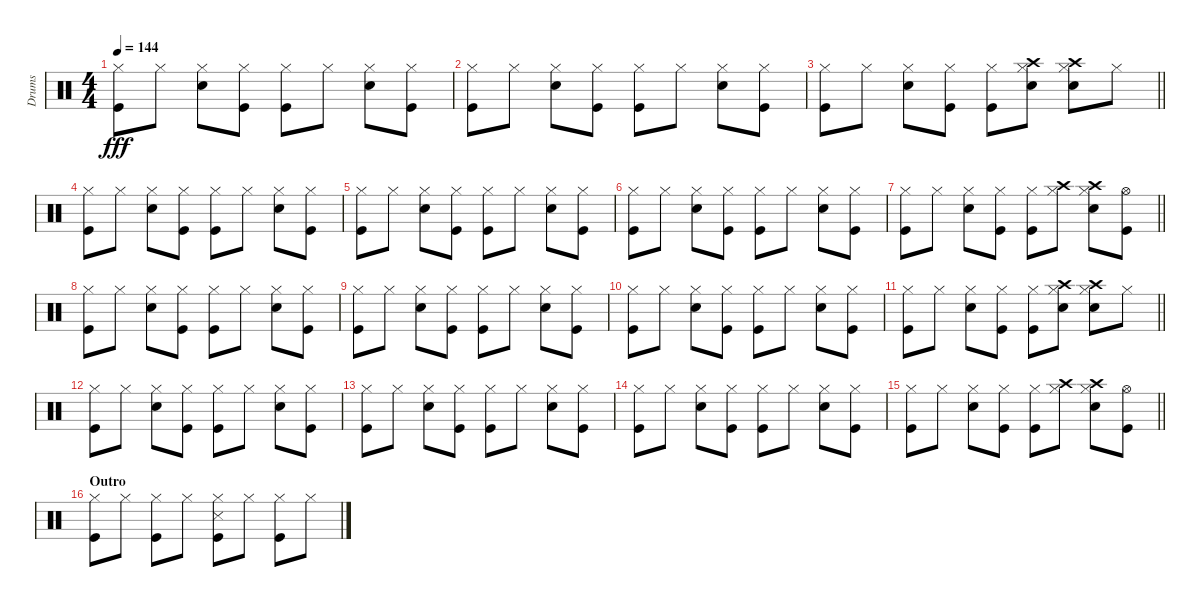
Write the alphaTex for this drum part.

\track ("Drums" "Drums") {instrument percussion}
\staff {score}
\articulation defaults
\ts (4 4)
\tempo 144
\clef neutral
\ks c
("Hi-Hat (closed)" "Kick (hit)").8{dy fff} "Hi-Hat (closed)".8 ("Snare (hit) 2" "Hi-Hat (closed)").8 ("Kick (hit)" "Hi-Hat (closed)").8 ("Kick (hit)" "Hi-Hat (closed)").8 "Hi-Hat (closed)".8 ("Snare (hit) 2" "Hi-Hat (closed)").8 ("Hi-Hat (closed)" "Kick (hit)").8 |
("Hi-Hat (closed)" "Kick (hit)").8 "Hi-Hat (closed)".8 ("Snare (hit) 2" "Hi-Hat (closed)").8 ("Kick (hit)" "Hi-Hat (closed)").8 ("Hi-Hat (closed)" "Kick (hit)").8 "Hi-Hat (closed)".8 ("Snare (hit) 2" "Hi-Hat (closed)").8 ("Hi-Hat (closed)" "Kick (hit)").8 |
\barLineRight lightlight
("Hi-Hat (closed)" "Kick (hit)").8 "Hi-Hat (closed)".8 ("Snare (hit) 2" "Hi-Hat (closed)").8 ("Kick (hit)" "Hi-Hat (closed)").8 ("Kick (hit)" "Hi-Hat (closed)").8 ("Hi-Hat (closed)" "Crash high (hit)" "Snare (hit) 2").8 ("Hi-Hat (closed)" "Crash high (hit)" "Snare (hit) 2").8 "Hi-Hat (closed)".8 |
("Hi-Hat (closed)" "Kick (hit)").8 "Hi-Hat (closed)".8 ("Snare (hit) 2" "Hi-Hat (closed)").8 ("Kick (hit)" "Hi-Hat (closed)").8 ("Kick (hit)" "Hi-Hat (closed)").8 "Hi-Hat (closed)".8 ("Snare (hit) 2" "Hi-Hat (closed)").8 ("Hi-Hat (closed)" "Kick (hit)").8 |
("Hi-Hat (closed)" "Kick (hit)").8 "Hi-Hat (closed)".8 ("Snare (hit) 2" "Hi-Hat (closed)").8 ("Kick (hit)" "Hi-Hat (closed)").8 ("Kick (hit)" "Hi-Hat (closed)").8 "Hi-Hat (closed)".8 ("Snare (hit) 2" "Hi-Hat (closed)").8 ("Hi-Hat (closed)" "Kick (hit)").8 |
("Hi-Hat (closed)" "Kick (hit)").8 "Hi-Hat (closed)".8 ("Snare (hit) 2" "Hi-Hat (closed)").8 ("Kick (hit)" "Hi-Hat (closed)").8 ("Hi-Hat (closed)" "Kick (hit)").8 "Hi-Hat (closed)".8 ("Snare (hit) 2" "Hi-Hat (closed)").8 ("Hi-Hat (closed)" "Kick (hit)").8 |
\barLineRight lightlight
("Kick (hit)" "Hi-Hat (closed)").8 "Hi-Hat (closed)".8 ("Snare (hit) 2" "Hi-Hat (closed)").8 ("Kick (hit)" "Hi-Hat (closed)").8 ("Hi-Hat (closed)" "Kick (hit)").8 ("Crash high (hit)" "Hi-Hat (closed)").8 ("Crash high (hit)" "Snare (hit) 2" "Hi-Hat (closed)").8 ("Hi-Hat (open)" "Kick (hit)").8 |
("Hi-Hat (closed)" "Kick (hit)").8 "Hi-Hat (closed)".8 ("Snare (hit) 2" "Hi-Hat (closed)").8 ("Kick (hit)" "Hi-Hat (closed)").8 ("Kick (hit)" "Hi-Hat (closed)").8 "Hi-Hat (closed)".8 ("Snare (hit) 2" "Hi-Hat (closed)").8 ("Hi-Hat (closed)" "Kick (hit)").8 |
("Hi-Hat (closed)" "Kick (hit)").8 "Hi-Hat (closed)".8 ("Snare (hit) 2" "Hi-Hat (closed)").8 ("Kick (hit)" "Hi-Hat (closed)").8 ("Kick (hit)" "Hi-Hat (closed)").8 "Hi-Hat (closed)".8 ("Snare (hit) 2" "Hi-Hat (closed)").8 ("Hi-Hat (closed)" "Kick (hit)").8 |
("Hi-Hat (closed)" "Kick (hit)").8 "Hi-Hat (closed)".8 ("Snare (hit) 2" "Hi-Hat (closed)").8 ("Kick (hit)" "Hi-Hat (closed)").8 ("Hi-Hat (closed)" "Kick (hit)").8 "Hi-Hat (closed)".8 ("Snare (hit) 2" "Hi-Hat (closed)").8 ("Hi-Hat (closed)" "Kick (hit)").8 |
\barLineRight lightlight
("Hi-Hat (closed)" "Kick (hit)").8 "Hi-Hat (closed)".8 ("Snare (hit) 2" "Hi-Hat (closed)").8 ("Kick (hit)" "Hi-Hat (closed)").8 ("Kick (hit)" "Hi-Hat (closed)").8 ("Hi-Hat (closed)" "Crash high (hit)" "Snare (hit) 2").8 ("Hi-Hat (closed)" "Crash high (hit)" "Snare (hit) 2").8 "Hi-Hat (closed)".8 |
("Hi-Hat (closed)" "Kick (hit)").8 "Hi-Hat (closed)".8 ("Snare (hit) 2" "Hi-Hat (closed)").8 ("Kick (hit)" "Hi-Hat (closed)").8 ("Kick (hit)" "Hi-Hat (closed)").8 "Hi-Hat (closed)".8 ("Snare (hit) 2" "Hi-Hat (closed)").8 ("Hi-Hat (closed)" "Kick (hit)").8 |
("Hi-Hat (closed)" "Kick (hit)").8 "Hi-Hat (closed)".8 ("Snare (hit) 2" "Hi-Hat (closed)").8 ("Kick (hit)" "Hi-Hat (closed)").8 ("Kick (hit)" "Hi-Hat (closed)").8 "Hi-Hat (closed)".8 ("Snare (hit) 2" "Hi-Hat (closed)").8 ("Hi-Hat (closed)" "Kick (hit)").8 |
("Hi-Hat (closed)" "Kick (hit)").8 "Hi-Hat (closed)".8 ("Snare (hit) 2" "Hi-Hat (closed)").8 ("Kick (hit)" "Hi-Hat (closed)").8 ("Hi-Hat (closed)" "Kick (hit)").8 "Hi-Hat (closed)".8 ("Snare (hit) 2" "Hi-Hat (closed)").8 ("Hi-Hat (closed)" "Kick (hit)").8 |
\barLineRight lightlight
("Kick (hit)" "Hi-Hat (closed)").8 "Hi-Hat (closed)".8 ("Snare (hit) 2" "Hi-Hat (closed)").8 ("Kick (hit)" "Hi-Hat (closed)").8 ("Hi-Hat (closed)" "Kick (hit)").8 ("Crash high (hit)" "Hi-Hat (closed)").8 ("Crash high (hit)" "Snare (hit) 2" "Hi-Hat (closed)").8 ("Hi-Hat (open)" "Kick (hit)").8 |
\section ("" "Outro")
("Hi-Hat (closed)" "Kick (hit)").8 "Hi-Hat (closed)".8 ("Hi-Hat (closed)" "Kick (hit)").8 "Hi-Hat (closed)".8 ("Hi-Hat (closed)" "Kick (hit)" "Snare (side stick) 3").8 "Hi-Hat (closed)".8 ("Hi-Hat (closed)" "Kick (hit)").8 "Hi-Hat (closed)".8
